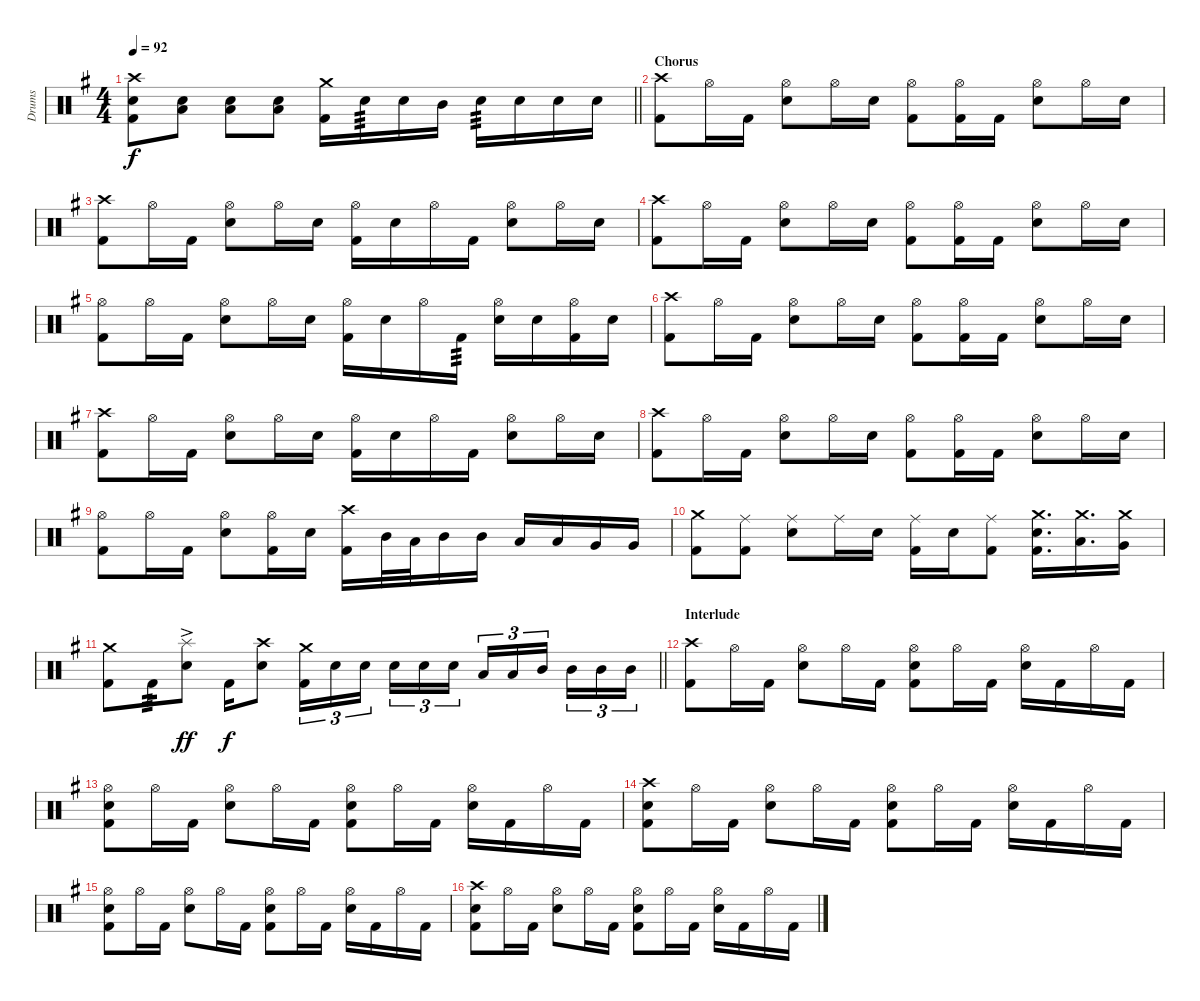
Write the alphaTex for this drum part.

\track ("Drums" "Drums") {instrument percussion}
\staff {score}
\articulation defaults
\ts (4 4)
\tempo 92
\clef neutral
\barLineRight lightlight
\ks g
("Crash high (hit)" "Electric Snare (hit)" "Kick (hit) 2").8{dy f} ("Electric Snare (hit)" "Low Tom (hit)").8 ("Electric Snare (hit)" "Low Tom (hit)").8 ("Electric Snare (hit)" "Low Tom (hit)").8 ("Crash medium (hit)" "Kick (hit) 2").16 "Electric Snare (hit)".16{tp 3} "Electric Snare (hit)".16 "Mid Tom (hit)".16 "Electric Snare (hit)".16{tp 3} "Electric Snare (hit)".16 "Electric Snare (hit)".16 "Electric Snare (hit)".16 |
\section ("" "Chorus")
("Crash high (hit)" "Kick (hit) 2").8 "Hi-Hat (open)".16 "Kick (hit) 2".16 ("Hi-Hat (open)" "Electric Snare (hit)").8 "Hi-Hat (open)".16 "Electric Snare (hit)".16 ("Hi-Hat (open)" "Kick (hit) 2").8 ("Hi-Hat (open)" "Kick (hit) 2").16 "Kick (hit) 2".16 ("Hi-Hat (open)" "Electric Snare (hit)").8 "Hi-Hat (open)".16 "Electric Snare (hit)".16 |
("Crash high (hit)" "Kick (hit) 2").8 "Hi-Hat (open)".16 "Kick (hit) 2".16 ("Hi-Hat (open)" "Electric Snare (hit)").8 "Hi-Hat (open)".16 "Electric Snare (hit)".16 ("Hi-Hat (open)" "Kick (hit) 2").16 "Electric Snare (hit)".16 "Hi-Hat (open)".16 "Kick (hit) 2".16 ("Hi-Hat (open)" "Electric Snare (hit)").8 "Hi-Hat (open)".16 "Electric Snare (hit)".16 |
("Crash high (hit)" "Kick (hit) 2").8 "Hi-Hat (open)".16 "Kick (hit) 2".16 ("Hi-Hat (open)" "Electric Snare (hit)").8 "Hi-Hat (open)".16 "Electric Snare (hit)".16 ("Hi-Hat (open)" "Kick (hit) 2").8 ("Hi-Hat (open)" "Kick (hit) 2").16 "Kick (hit) 2".16 ("Hi-Hat (open)" "Electric Snare (hit)").8 "Hi-Hat (open)".16 "Electric Snare (hit)".16 |
("Hi-Hat (open)" "Kick (hit) 2").8 "Hi-Hat (open)".16 "Kick (hit) 2".16 ("Hi-Hat (open)" "Electric Snare (hit)").8 "Hi-Hat (open)".16 "Electric Snare (hit)".16 ("Hi-Hat (open)" "Kick (hit) 2").16 "Electric Snare (hit)".16 "Hi-Hat (open)".16 "Kick (hit) 2".16{tp 3} ("Hi-Hat (open)" "Electric Snare (hit)").16 "Electric Snare (hit)".16 ("Hi-Hat (open)" "Kick (hit) 2").16 "Electric Snare (hit)".16 |
("Crash high (hit)" "Kick (hit) 2").8 "Hi-Hat (open)".16 "Kick (hit) 2".16 ("Hi-Hat (open)" "Electric Snare (hit)").8 "Hi-Hat (open)".16 "Electric Snare (hit)".16 ("Hi-Hat (open)" "Kick (hit) 2").8 ("Hi-Hat (open)" "Kick (hit) 2").16 "Kick (hit) 2".16 ("Hi-Hat (open)" "Electric Snare (hit)").8 "Hi-Hat (open)".16 "Electric Snare (hit)".16 |
("Crash high (hit)" "Kick (hit) 2").8 "Hi-Hat (open)".16 "Kick (hit) 2".16 ("Hi-Hat (open)" "Electric Snare (hit)").8 "Hi-Hat (open)".16 "Electric Snare (hit)".16 ("Hi-Hat (open)" "Kick (hit) 2").16 "Electric Snare (hit)".16 "Hi-Hat (open)".16 "Kick (hit) 2".16 ("Hi-Hat (open)" "Electric Snare (hit)").8 "Hi-Hat (open)".16 "Electric Snare (hit)".16 |
("Crash high (hit)" "Kick (hit) 2").8 "Hi-Hat (open)".16 "Kick (hit) 2".16 ("Hi-Hat (open)" "Electric Snare (hit)").8 "Hi-Hat (open)".16 "Electric Snare (hit)".16 ("Hi-Hat (open)" "Kick (hit) 2").8 ("Hi-Hat (open)" "Kick (hit) 2").16 "Kick (hit) 2".16 ("Hi-Hat (open)" "Electric Snare (hit)").8 "Hi-Hat (open)".16 "Electric Snare (hit)".16 |
("Hi-Hat (open)" "Kick (hit) 2").8 "Hi-Hat (open)".16 "Kick (hit) 2".16 ("Hi-Hat (open)" "Electric Snare (hit)").8 ("Hi-Hat (open)" "Kick (hit) 2").16 "Electric Snare (hit)".16 ("Crash high (hit)" "Kick (hit) 2").16 "Mid Tom (hit)".32 "Low Tom (hit)".32 "Mid Tom (hit)".16 "Mid Tom (hit)".16 "Low Tom (hit)".16 "Low Tom (hit)".16 "Very Low Tom (hit)".16 "Very Low Tom (hit)".16 |
("Crash medium (hit)" "Kick (hit) 2").8 ("Ride (middle)" "Kick (hit) 2").8 ("Ride (middle)" "Electric Snare (hit)").8 "Ride (middle)".16 "Electric Snare (hit)".16 ("Ride (middle)" "Kick (hit) 2").16 "Electric Snare (hit)".16 ("Ride (middle)" "Kick (hit) 2").8 ("Crash medium (hit)" "Electric Snare (hit)" "Kick (hit) 2").16{d} ("Crash medium (hit)" "Low Tom (hit)").16{d} ("Crash medium (hit)" "Very Low Tom (hit)").16 |
\barLineRight lightlight
("Crash medium (hit)" "Kick (hit) 2").8 "Kick (hit) 2".16{tp 3} ("Splash (hit)"{ac} "Electric Snare (hit)").8{dy ff} "Kick (hit) 2".16{dy f} ("Crash high (hit)" "Electric Snare (hit)").8 ("Crash medium (hit)" "Kick (hit) 2").16{tu (3 2)} "Electric Snare (hit)".16{tu (3 2)} "Electric Snare (hit)".16{tu (3 2) beam splitsecondary} "Electric Snare (hit)".16{tu (3 2)} "Electric Snare (hit)".16{tu (3 2)} "Electric Snare (hit)".16{tu (3 2)} "Low Tom (hit)".16{tu (3 2)} "Low Tom (hit)".16{tu (3 2)} "Mid Tom (hit)".16{tu (3 2) beam splitsecondary} "Mid Tom (hit)".16{tu (3 2)} "Mid Tom (hit)".16{tu (3 2)} "Mid Tom (hit)".16{tu (3 2)} |
\section ("" "Interlude")
("Crash high (hit)" "Kick (hit) 2").8 "Hi-Hat (open)".16 "Kick (hit) 2".16 ("Hi-Hat (open)" "Electric Snare (hit)").8 "Hi-Hat (open)".16 "Kick (hit) 2".16 ("Hi-Hat (open)" "Electric Snare (hit)" "Kick (hit) 2").8 "Hi-Hat (open)".16 "Kick (hit) 2".16 ("Hi-Hat (open)" "Electric Snare (hit)").16 "Kick (hit) 2".16 "Hi-Hat (open)".16 "Kick (hit) 2".16 |
("Hi-Hat (open)" "Electric Snare (hit)" "Kick (hit) 2").8 "Hi-Hat (open)".16 "Kick (hit) 2".16 ("Hi-Hat (open)" "Electric Snare (hit)").8 "Hi-Hat (open)".16 "Kick (hit) 2".16 ("Hi-Hat (open)" "Electric Snare (hit)" "Kick (hit) 2").8 "Hi-Hat (open)".16 "Kick (hit) 2".16 ("Hi-Hat (open)" "Electric Snare (hit)").16 "Kick (hit) 2".16 "Hi-Hat (open)".16 "Kick (hit) 2".16 |
("Crash high (hit)" "Electric Snare (hit)" "Kick (hit) 2").8 "Hi-Hat (open)".16 "Kick (hit) 2".16 ("Hi-Hat (open)" "Electric Snare (hit)").8 "Hi-Hat (open)".16 "Kick (hit) 2".16 ("Hi-Hat (open)" "Electric Snare (hit)" "Kick (hit) 2").8 "Hi-Hat (open)".16 "Kick (hit) 2".16 ("Hi-Hat (open)" "Electric Snare (hit)").16 "Kick (hit) 2".16 "Hi-Hat (open)".16 "Kick (hit) 2".16 |
("Hi-Hat (open)" "Electric Snare (hit)" "Kick (hit) 2").8 "Hi-Hat (open)".16 "Kick (hit) 2".16 ("Hi-Hat (open)" "Electric Snare (hit)").8 "Hi-Hat (open)".16 "Kick (hit) 2".16 ("Hi-Hat (open)" "Electric Snare (hit)" "Kick (hit) 2").8 "Hi-Hat (open)".16 "Kick (hit) 2".16 ("Hi-Hat (open)" "Electric Snare (hit)").16 "Kick (hit) 2".16 "Hi-Hat (open)".16 "Kick (hit) 2".16 |
("Crash high (hit)" "Electric Snare (hit)" "Kick (hit) 2").8 "Hi-Hat (open)".16 "Kick (hit) 2".16 ("Hi-Hat (open)" "Electric Snare (hit)").8 "Hi-Hat (open)".16 "Kick (hit) 2".16 ("Hi-Hat (open)" "Electric Snare (hit)" "Kick (hit) 2").8 "Hi-Hat (open)".16 "Kick (hit) 2".16 ("Hi-Hat (open)" "Electric Snare (hit)").16 "Kick (hit) 2".16 "Hi-Hat (open)".16 "Kick (hit) 2".16
